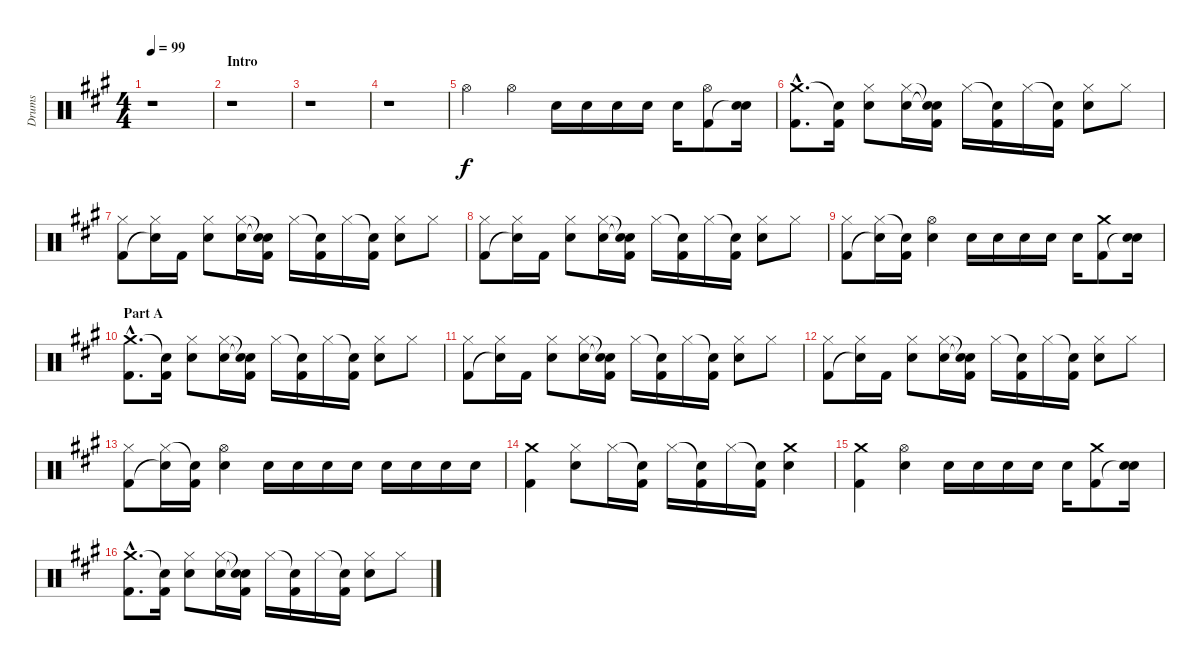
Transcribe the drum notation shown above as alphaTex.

\track ("Drums" "Drums") {instrument percussion}
\staff {score}
\articulation defaults
\ts (4 4)
\tempo 99
\clef neutral
\ks a
r.1{dy f} |
\section ("" "Intro")
r.1 |
r.1 |
r.1 |
"Hi-Hat (open)".4 "Hi-Hat (open)".4 "Electric Snare (hit)".16 "Electric Snare (hit)".16 "Electric Snare (hit)".16 "Electric Snare (hit)".16 "Electric Snare (hit)".16 ("Hi-Hat (open)" "Kick (hit) 2").8 ("Electric Snare (hit)" "Snare (hit)"{t}).16 |
("Crash medium (hit)"{hac} "Kick (hit) 2"{hac}).8{d} ("Snare (hit)"{t} "Kick (hit) 2").16 ("Hi-Hat (closed)" "Electric Snare (hit)").8 ("Hi-Hat (closed)" "Electric Snare (hit)").16 ("Snare (hit)"{t} "Snare (hit)"{t} "Kick (hit) 2").16 "Hi-Hat (closed)".16 ("Snare (hit)"{t} "Kick (hit) 2").16 "Hi-Hat (closed)".16 ("Snare (hit)"{t} "Kick (hit) 2").16 ("Hi-Hat (closed)" "Electric Snare (hit)").8 "Hi-Hat (closed)".8 |
("Hi-Hat (closed)" "Kick (hit) 2").8 ("Hi-Hat (closed)" "Snare (hit)"{t}).16 "Kick (hit) 2".16 ("Hi-Hat (closed)" "Electric Snare (hit)").8 ("Hi-Hat (closed)" "Electric Snare (hit)").16 ("Snare (hit)"{t} "Snare (hit)"{t} "Kick (hit) 2").16 "Hi-Hat (closed)".16 ("Snare (hit)"{t} "Kick (hit) 2").16 "Hi-Hat (closed)".16 ("Snare (hit)"{t} "Kick (hit) 2").16 ("Hi-Hat (closed)" "Electric Snare (hit)").8 "Hi-Hat (closed)".8 |
("Hi-Hat (closed)" "Kick (hit) 2").8 ("Hi-Hat (closed)" "Snare (hit)"{t}).16 "Kick (hit) 2".16 ("Hi-Hat (closed)" "Electric Snare (hit)").8 ("Hi-Hat (closed)" "Electric Snare (hit)").16 ("Snare (hit)"{t} "Snare (hit)"{t} "Kick (hit) 2").16 "Hi-Hat (closed)".16 ("Snare (hit)"{t} "Kick (hit) 2").16 "Hi-Hat (closed)".16 ("Snare (hit)"{t} "Kick (hit) 2").16 ("Hi-Hat (closed)" "Electric Snare (hit)").8 "Hi-Hat (closed)".8 |
("Hi-Hat (closed)" "Kick (hit) 2").8 ("Hi-Hat (closed)" "Snare (hit)"{t}).16 ("Snare (hit)"{t} "Kick (hit) 2").16 ("Hi-Hat (open)" "Electric Snare (hit)").4 "Electric Snare (hit)".16 "Electric Snare (hit)".16 "Electric Snare (hit)".16 "Electric Snare (hit)".16 "Electric Snare (hit)".16 ("Crash medium (hit)" "Kick (hit) 2").8 ("Electric Snare (hit)" "Snare (hit)"{t}).16 |
\section ("" "Part A")
("Crash medium (hit)"{hac} "Kick (hit) 2"{hac}).8{d} ("Snare (hit)"{t} "Kick (hit) 2").16 ("Hi-Hat (closed)" "Electric Snare (hit)").8 ("Hi-Hat (closed)" "Electric Snare (hit)").16 ("Snare (hit)"{t} "Snare (hit)"{t} "Kick (hit) 2").16 "Hi-Hat (closed)".16 ("Snare (hit)"{t} "Kick (hit) 2").16 "Hi-Hat (closed)".16 ("Snare (hit)"{t} "Kick (hit) 2").16 ("Hi-Hat (closed)" "Electric Snare (hit)").8 "Hi-Hat (closed)".8 |
("Hi-Hat (closed)" "Kick (hit) 2").8 ("Hi-Hat (closed)" "Snare (hit)"{t}).16 "Kick (hit) 2".16 ("Hi-Hat (closed)" "Electric Snare (hit)").8 ("Hi-Hat (closed)" "Electric Snare (hit)").16 ("Snare (hit)"{t} "Snare (hit)"{t} "Kick (hit) 2").16 "Hi-Hat (closed)".16 ("Snare (hit)"{t} "Kick (hit) 2").16 "Hi-Hat (closed)".16 ("Snare (hit)"{t} "Kick (hit) 2").16 ("Hi-Hat (closed)" "Electric Snare (hit)").8 "Hi-Hat (closed)".8 |
("Hi-Hat (closed)" "Kick (hit) 2").8 ("Hi-Hat (closed)" "Snare (hit)"{t}).16 "Kick (hit) 2".16 ("Hi-Hat (closed)" "Electric Snare (hit)").8 ("Hi-Hat (closed)" "Electric Snare (hit)").16 ("Snare (hit)"{t} "Snare (hit)"{t} "Kick (hit) 2").16 "Hi-Hat (closed)".16 ("Snare (hit)"{t} "Kick (hit) 2").16 "Hi-Hat (closed)".16 ("Snare (hit)"{t} "Kick (hit) 2").16 ("Hi-Hat (closed)" "Electric Snare (hit)").8 "Hi-Hat (closed)".8 |
("Hi-Hat (closed)" "Kick (hit) 2").8 ("Hi-Hat (closed)" "Snare (hit)"{t}).16 ("Snare (hit)"{t} "Kick (hit) 2").16 ("Hi-Hat (open)" "Electric Snare (hit)").4 "Electric Snare (hit)".16 "Electric Snare (hit)".16 "Electric Snare (hit)".16 "Electric Snare (hit)".16 "Electric Snare (hit)".16 "Electric Snare (hit)".16 "Electric Snare (hit)".16 "Electric Snare (hit)".16 |
("Crash medium (hit)" "Kick (hit) 2").4 ("Hi-Hat (closed)" "Electric Snare (hit)").8 "Hi-Hat (closed)".16 ("Snare (hit)"{t} "Kick (hit) 2").16 "Hi-Hat (closed)".16 ("Snare (hit)"{t} "Kick (hit) 2").16 "Hi-Hat (closed)".16 ("Snare (hit)"{t} "Kick (hit) 2").16 ("Crash medium (hit)" "Electric Snare (hit)").4 |
("Crash medium (hit)" "Kick (hit) 2").4 ("Hi-Hat (open)" "Electric Snare (hit)").4 "Electric Snare (hit)".16 "Electric Snare (hit)".16 "Electric Snare (hit)".16 "Electric Snare (hit)".16 "Electric Snare (hit)".16 ("Crash medium (hit)" "Kick (hit) 2").8 ("Electric Snare (hit)" "Snare (hit)"{t}).16 |
("Crash medium (hit)"{hac} "Kick (hit) 2"{hac}).8{d} ("Snare (hit)"{t} "Kick (hit) 2").16 ("Hi-Hat (closed)" "Electric Snare (hit)").8 ("Hi-Hat (closed)" "Electric Snare (hit)").16 ("Snare (hit)"{t} "Snare (hit)"{t} "Kick (hit) 2").16 "Hi-Hat (closed)".16 ("Snare (hit)"{t} "Kick (hit) 2").16 "Hi-Hat (closed)".16 ("Snare (hit)"{t} "Kick (hit) 2").16 ("Hi-Hat (closed)" "Electric Snare (hit)").8 "Hi-Hat (closed)".8
